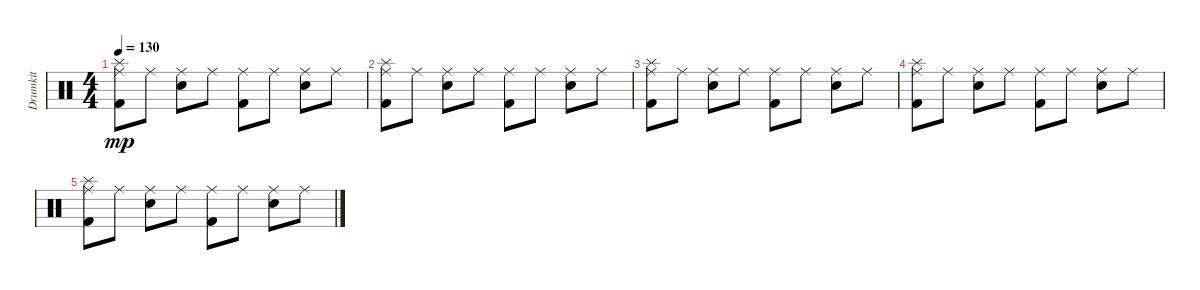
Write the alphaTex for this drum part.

\track ("Drumkit" "Drumkit") {instrument percussion}
\staff {score}
\articulation defaults
\ts (4 4)
\tempo 130
\clef neutral
\ks c
("Kick (hit) 2" "Ride (middle)" "Splash (hit)").8{dy mp} "Ride (middle)".8 ("Snare (hit) 2" "Ride (middle)").8 "Ride (middle)".8 ("Kick (hit) 2" "Ride (middle)").8 "Ride (middle)".8 ("Snare (hit) 2" "Ride (middle)").8 "Ride (middle)".8 |
("Kick (hit) 2" "Ride (middle)" "Splash (hit)").8 "Ride (middle)".8 ("Snare (hit) 2" "Ride (middle)").8 "Ride (middle)".8 ("Kick (hit) 2" "Ride (middle)").8 "Ride (middle)".8 ("Snare (hit) 2" "Ride (middle)").8 "Ride (middle)".8 |
("Kick (hit) 2" "Ride (middle)" "Splash (hit)").8 "Ride (middle)".8 ("Snare (hit) 2" "Ride (middle)").8 "Ride (middle)".8 ("Kick (hit) 2" "Ride (middle)").8 "Ride (middle)".8 ("Snare (hit) 2" "Ride (middle)").8 "Ride (middle)".8 |
("Kick (hit) 2" "Ride (middle)" "Splash (hit)").8 "Ride (middle)".8 ("Snare (hit) 2" "Ride (middle)").8 "Ride (middle)".8 ("Kick (hit) 2" "Ride (middle)").8 "Ride (middle)".8 ("Snare (hit) 2" "Ride (middle)").8 "Ride (middle)".8 |
("Kick (hit) 2" "Ride (middle)" "Splash (hit)").8 "Ride (middle)".8 ("Snare (hit) 2" "Ride (middle)").8 "Ride (middle)".8 ("Kick (hit) 2" "Ride (middle)").8 "Ride (middle)".8 ("Snare (hit) 2" "Ride (middle)").8 "Ride (middle)".8
